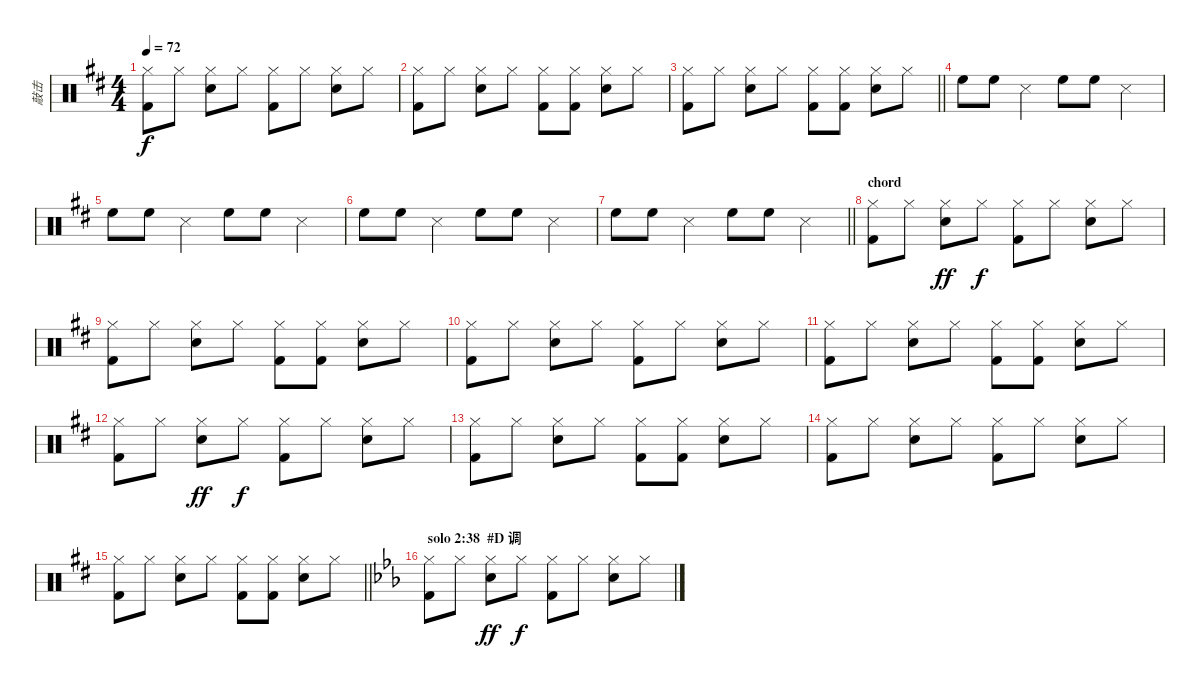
\track ("敲击" "敲击") {instrument percussion}
\staff {score}
\articulation defaults
\ts (4 4)
\tempo 72
\clef neutral
\ks d
("Hi-Hat (closed)" "Kick (hit) 2").8{dy f} "Hi-Hat (closed)".8 ("Hi-Hat (closed)" "Snare (hit) 2").8 "Hi-Hat (closed)".8 ("Hi-Hat (closed)" "Kick (hit) 2").8 "Hi-Hat (closed)".8 ("Hi-Hat (closed)" "Snare (hit) 2").8 "Hi-Hat (closed)".8 |
("Hi-Hat (closed)" "Kick (hit) 2").8 "Hi-Hat (closed)".8 ("Hi-Hat (closed)" "Snare (hit) 2").8 "Hi-Hat (closed)".8 ("Hi-Hat (closed)" "Kick (hit) 2").8 ("Hi-Hat (closed)" "Kick (hit) 2").8 ("Hi-Hat (closed)" "Snare (hit) 2").8 "Hi-Hat (closed)".8 |
\barLineRight lightlight
("Hi-Hat (closed)" "Kick (hit) 2").8 "Hi-Hat (closed)".8 ("Hi-Hat (closed)" "Snare (hit) 2").8 "Hi-Hat (closed)".8 ("Hi-Hat (closed)" "Kick (hit) 2").8 ("Hi-Hat (closed)" "Kick (hit) 2").8 ("Hi-Hat (closed)" "Snare (hit) 2").8 "Hi-Hat (closed)".8 |
"High Floor Tom (hit)".8 "High Floor Tom (hit)".8 "Metronome (hit)".4 "High Floor Tom (hit)".8 "High Floor Tom (hit)".8 "Metronome (hit)".4 |
"High Floor Tom (hit)".8 "High Floor Tom (hit)".8 "Metronome (hit)".4 "High Floor Tom (hit)".8 "High Floor Tom (hit)".8 "Metronome (hit)".4 |
"High Floor Tom (hit)".8 "High Floor Tom (hit)".8 "Metronome (hit)".4 "High Floor Tom (hit)".8 "High Floor Tom (hit)".8 "Metronome (hit)".4 |
\barLineRight lightlight "High Floor Tom (hit)".8 "High Floor Tom (hit)".8 "Metronome (hit)".4 "High Floor Tom (hit)".8 "High Floor Tom (hit)".8 "Metronome (hit)".4
|
\section ("" "chord")
("Hi-Hat (closed)" "Kick (hit) 2").8 "Hi-Hat (closed)".8 ("Hi-Hat (closed)" "Snare (hit) 2").8{dy ff} "Hi-Hat (closed)".8{dy f} ("Hi-Hat (closed)" "Kick (hit) 2").8 "Hi-Hat (closed)".8 ("Hi-Hat (closed)" "Snare (hit) 2").8 "Hi-Hat (closed)".8 |
("Hi-Hat (closed)" "Kick (hit) 2").8 "Hi-Hat (closed)".8 ("Hi-Hat (closed)" "Snare (hit) 2").8 "Hi-Hat (closed)".8 ("Hi-Hat (closed)" "Kick (hit) 2").8 ("Hi-Hat (closed)" "Kick (hit) 2").8 ("Hi-Hat (closed)" "Snare (hit) 2").8 "Hi-Hat (closed)".8 |
("Hi-Hat (closed)" "Kick (hit) 2").8 "Hi-Hat (closed)".8 ("Hi-Hat (closed)" "Snare (hit) 2").8 "Hi-Hat (closed)".8 ("Hi-Hat (closed)" "Kick (hit) 2").8 "Hi-Hat (closed)".8 ("Hi-Hat (closed)" "Snare (hit) 2").8 "Hi-Hat (closed)".8 |
("Hi-Hat (closed)" "Kick (hit) 2").8 "Hi-Hat (closed)".8 ("Hi-Hat (closed)" "Snare (hit) 2").8 "Hi-Hat (closed)".8 ("Hi-Hat (closed)" "Kick (hit) 2").8 ("Hi-Hat (closed)" "Kick (hit) 2").8 ("Hi-Hat (closed)" "Snare (hit) 2").8 "Hi-Hat (closed)".8 |
("Hi-Hat (closed)" "Kick (hit) 2").8 "Hi-Hat (closed)".8 ("Hi-Hat (closed)" "Snare (hit) 2").8{dy ff} "Hi-Hat (closed)".8{dy f} ("Hi-Hat (closed)" "Kick (hit) 2").8 "Hi-Hat (closed)".8 ("Hi-Hat (closed)" "Snare (hit) 2").8 "Hi-Hat (closed)".8 |
("Hi-Hat (closed)" "Kick (hit) 2").8 "Hi-Hat (closed)".8 ("Hi-Hat (closed)" "Snare (hit) 2").8 "Hi-Hat (closed)".8 ("Hi-Hat (closed)" "Kick (hit) 2").8 ("Hi-Hat (closed)" "Kick (hit) 2").8 ("Hi-Hat (closed)" "Snare (hit) 2").8 "Hi-Hat (closed)".8 |
("Hi-Hat (closed)" "Kick (hit) 2").8 "Hi-Hat (closed)".8 ("Hi-Hat (closed)" "Snare (hit) 2").8 "Hi-Hat (closed)".8 ("Hi-Hat (closed)" "Kick (hit) 2").8 "Hi-Hat (closed)".8 ("Hi-Hat (closed)" "Snare (hit) 2").8 "Hi-Hat (closed)".8 |
\barLineRight lightlight
("Hi-Hat (closed)" "Kick (hit) 2").8 "Hi-Hat (closed)".8 ("Hi-Hat (closed)" "Snare (hit) 2").8 "Hi-Hat (closed)".8 ("Hi-Hat (closed)" "Kick (hit) 2").8 ("Hi-Hat (closed)" "Kick (hit) 2").8 ("Hi-Hat (closed)" "Snare (hit) 2").8 "Hi-Hat (closed)".8 |
\section ("" " solo 2:38  #D 调")
\ks eb
("Hi-Hat (closed)" "Kick (hit) 2").8 "Hi-Hat (closed)".8 ("Hi-Hat (closed)" "Snare (hit) 2").8{dy ff} "Hi-Hat (closed)".8{dy f} ("Hi-Hat (closed)" "Kick (hit) 2").8 "Hi-Hat (closed)".8 ("Hi-Hat (closed)" "Snare (hit) 2").8 "Hi-Hat (closed)".8
